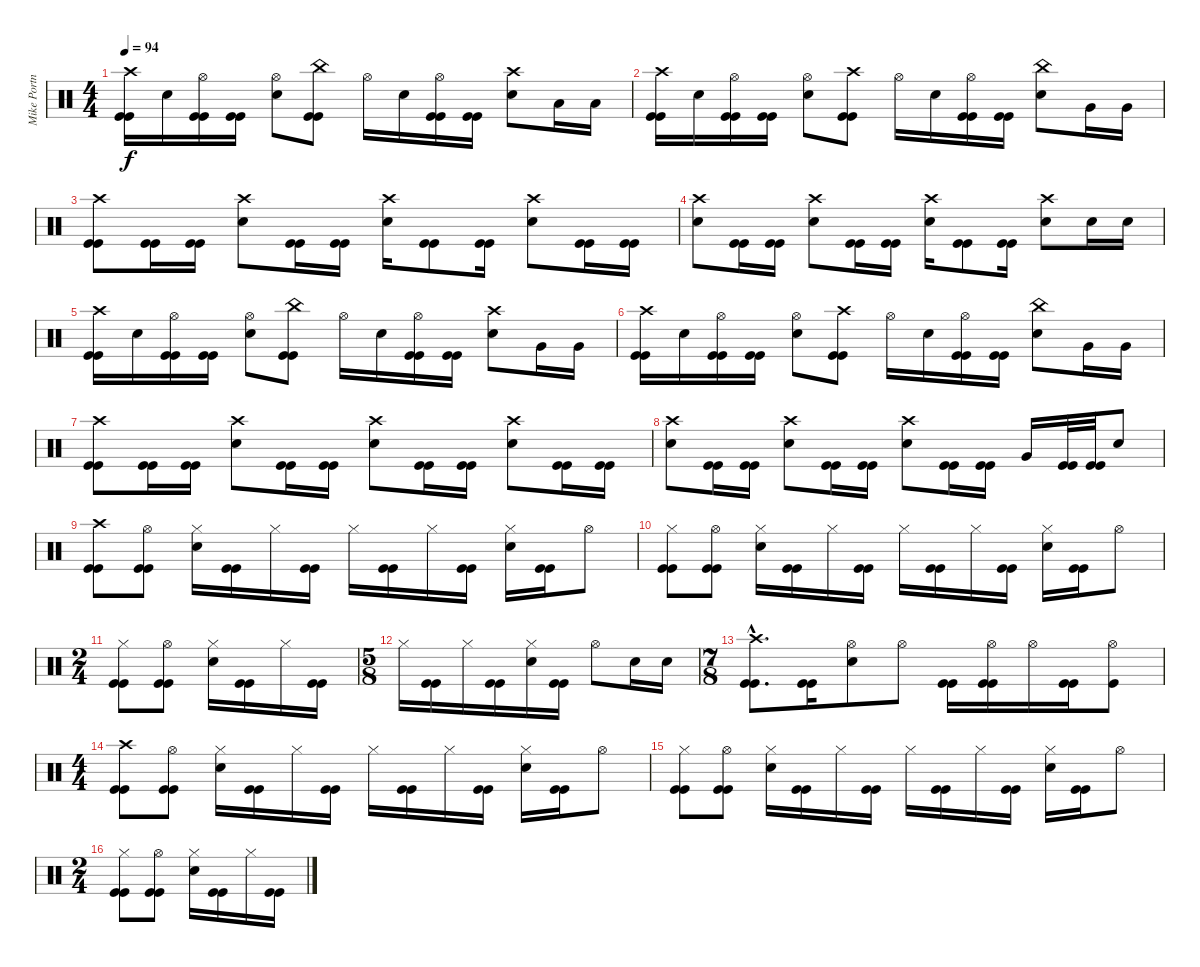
\track ("Mike Portnoy - Drum" "Mike Portn") {instrument percussion}
\staff {score}
\articulation defaults
\ts (4 4)
\tempo 94
\clef neutral
\ks c
("Crash high (hit)" "Kick (hit)" "Kick (hit)").16{dy f} "Snare (hit) 2".16 ("Hi-Hat (open)" "Kick (hit)" "Kick (hit)").16 ("Kick (hit)" "Kick (hit)").16 ("Hi-Hat (open)" "Snare (hit) 2").8 ("China (hit)" "Kick (hit)" "Kick (hit)").8 "Hi-Hat (open)".16 "Snare (hit) 2".16 ("Hi-Hat (open)" "Kick (hit)" "Kick (hit)").16 ("Kick (hit)" "Kick (hit)").16 ("Crash high (hit)" "Snare (hit) 2").8 "Low Tom (hit)".16 "Low Tom (hit)".16 |
("Crash high (hit)" "Kick (hit)" "Kick (hit)").16 "Snare (hit) 2".16 ("Hi-Hat (open)" "Kick (hit)" "Kick (hit)").16 ("Kick (hit)" "Kick (hit)").16 ("Hi-Hat (open)" "Snare (hit) 2").8 ("Crash high (hit)" "Kick (hit)" "Kick (hit)").8 "Hi-Hat (open)".16 "Snare (hit) 2".16 ("Hi-Hat (open)" "Kick (hit)" "Kick (hit)").16 ("Kick (hit)" "Kick (hit)").16 ("China (hit)" "Snare (hit) 2").8 "Very Low Tom (hit)".16 "Very Low Tom (hit)".16 |
("Crash high (hit)" "Kick (hit)" "Kick (hit)").8 ("Kick (hit)" "Kick (hit)").16 ("Kick (hit)" "Kick (hit)").16 ("Crash high (hit)" "Snare (hit) 2").8 ("Kick (hit)" "Kick (hit)").16 ("Kick (hit)" "Kick (hit)").16 ("Crash high (hit)" "Snare (hit) 2").16 ("Kick (hit)" "Kick (hit)").8 ("Kick (hit)" "Kick (hit)").16 ("Crash high (hit)" "Snare (hit) 2").8 ("Kick (hit)" "Kick (hit)").16 ("Kick (hit)" "Kick (hit)").16 |
("Crash high (hit)" "Snare (hit) 2").8 ("Kick (hit)" "Kick (hit)").16 ("Kick (hit)" "Kick (hit)").16 ("Crash high (hit)" "Snare (hit) 2").8 ("Kick (hit)" "Kick (hit)").16 ("Kick (hit)" "Kick (hit)").16 ("Crash high (hit)" "Snare (hit) 2").16 ("Kick (hit)" "Kick (hit)").8 ("Kick (hit)" "Kick (hit)").16 ("Crash high (hit)" "Snare (hit) 2").8 "Snare (hit) 2".16 "Snare (hit) 2".16 |
("Crash high (hit)" "Kick (hit)" "Kick (hit)").16 "Snare (hit) 2".16 ("Hi-Hat (open)" "Kick (hit)" "Kick (hit)").16 ("Kick (hit)" "Kick (hit)").16 ("Hi-Hat (open)" "Snare (hit) 2").8 ("China (hit)" "Kick (hit)" "Kick (hit)").8 "Hi-Hat (open)".16 "Snare (hit) 2".16 ("Hi-Hat (open)" "Kick (hit)" "Kick (hit)").16 ("Kick (hit)" "Kick (hit)").16 ("Crash high (hit)" "Snare (hit) 2").8 "Very Low Tom (hit)".16 "Very Low Tom (hit)".16 |
("Crash high (hit)" "Kick (hit)" "Kick (hit)").16 "Snare (hit) 2".16 ("Hi-Hat (open)" "Kick (hit)" "Kick (hit)").16 ("Kick (hit)" "Kick (hit)").16 ("Hi-Hat (open)" "Snare (hit) 2").8 ("Crash high (hit)" "Kick (hit)" "Kick (hit)").8 "Hi-Hat (open)".16 "Snare (hit) 2".16 ("Hi-Hat (open)" "Kick (hit)" "Kick (hit)").16 ("Kick (hit)" "Kick (hit)").16 ("China (hit)" "Snare (hit) 2").8 "Very Low Tom (hit)".16 "Very Low Tom (hit)".16 |
("Crash high (hit)" "Kick (hit)" "Kick (hit)").8 ("Kick (hit)" "Kick (hit)").16 ("Kick (hit)" "Kick (hit)").16 ("Crash high (hit)" "Snare (hit) 2").8 ("Kick (hit)" "Kick (hit)").16 ("Kick (hit)" "Kick (hit)").16 ("Crash high (hit)" "Snare (hit) 2").8 ("Kick (hit)" "Kick (hit)").16 ("Kick (hit)" "Kick (hit)").16 ("Crash high (hit)" "Snare (hit) 2").8 ("Kick (hit)" "Kick (hit)").16 ("Kick (hit)" "Kick (hit)").16 |
("Crash high (hit)" "Snare (hit) 2").8 ("Kick (hit)" "Kick (hit)").16 ("Kick (hit)" "Kick (hit)").16 ("Crash high (hit)" "Snare (hit) 2").8 ("Kick (hit)" "Kick (hit)").16 ("Kick (hit)" "Kick (hit)").16 ("Crash high (hit)" "Snare (hit) 2").8 ("Kick (hit)" "Kick (hit)").16 ("Kick (hit)" "Kick (hit)").16 "Very Low Tom (hit)".16 ("Kick (hit)" "Kick (hit)").32 ("Kick (hit)" "Kick (hit)").32 "Snare (hit) 2".8 |
("Crash high (hit)" "Kick (hit)" "Kick (hit)").8 ("Hi-Hat (open)" "Kick (hit)" "Kick (hit)").8 ("Hi-Hat (closed)" "Snare (hit) 2").16 ("Kick (hit)" "Kick (hit)").16 "Hi-Hat (closed)".16 ("Kick (hit)" "Kick (hit)").16 "Hi-Hat (closed)".16 ("Kick (hit)" "Kick (hit)").16 "Hi-Hat (closed)".16 ("Kick (hit)" "Kick (hit)").16 ("Hi-Hat (closed)" "Snare (hit) 2").16 ("Kick (hit)" "Kick (hit)").16 "Hi-Hat (open)".8 |
("Hi-Hat (closed)" "Kick (hit)" "Kick (hit)").8 ("Hi-Hat (open)" "Kick (hit)" "Kick (hit)").8 ("Hi-Hat (closed)" "Snare (hit) 2").16 ("Kick (hit)" "Kick (hit)").16 "Hi-Hat (closed)".16 ("Kick (hit)" "Kick (hit)").16 "Hi-Hat (closed)".16 ("Kick (hit)" "Kick (hit)").16 "Hi-Hat (closed)".16 ("Kick (hit)" "Kick (hit)").16 ("Hi-Hat (closed)" "Snare (hit) 2").16 ("Kick (hit)" "Kick (hit)").16 "Hi-Hat (open)".8 |
\ts (2 4)
("Hi-Hat (closed)" "Kick (hit)" "Kick (hit)").8 ("Hi-Hat (open)" "Kick (hit)" "Kick (hit)").8 ("Hi-Hat (closed)" "Snare (hit) 2").16 ("Kick (hit)" "Kick (hit)").16 "Hi-Hat (closed)".16 ("Kick (hit)" "Kick (hit)").16 |
\ts (5 8)
"Hi-Hat (closed)".16 ("Kick (hit)" "Kick (hit)").16 "Hi-Hat (closed)".16 ("Kick (hit)" "Kick (hit)").16 ("Hi-Hat (closed)" "Snare (hit) 2").16 ("Kick (hit)" "Kick (hit)").16 "Hi-Hat (open)".8 "Snare (hit) 2".16 "Snare (hit) 2".16 |
\ts (7 8)
("Crash high (hit)"{hac} "Kick (hit)"{hac} "Kick (hit)"{hac}).8{d} ("Kick (hit)" "Kick (hit)").16 ("Hi-Hat (open)" "Snare (hit) 2").8 "Hi-Hat (open)".8 ("Kick (hit)" "Kick (hit)").16 ("Hi-Hat (open)" "Kick (hit)" "Kick (hit)").16 "Hi-Hat (open)".16 ("Kick (hit)" "Kick (hit)").16 ("Hi-Hat (open)" "Kick (hit)").8 |
\ts (4 4)
("Crash high (hit)" "Kick (hit)" "Kick (hit)").8 ("Hi-Hat (open)" "Kick (hit)" "Kick (hit)").8 ("Hi-Hat (closed)" "Snare (hit) 2").16 ("Kick (hit)" "Kick (hit)").16 "Hi-Hat (closed)".16 ("Kick (hit)" "Kick (hit)").16 "Hi-Hat (closed)".16 ("Kick (hit)" "Kick (hit)").16 "Hi-Hat (closed)".16 ("Kick (hit)" "Kick (hit)").16 ("Hi-Hat (closed)" "Snare (hit) 2").16 ("Kick (hit)" "Kick (hit)").16 "Hi-Hat (open)".8 |
("Hi-Hat (closed)" "Kick (hit)" "Kick (hit)").8 ("Hi-Hat (open)" "Kick (hit)" "Kick (hit)").8 ("Hi-Hat (closed)" "Snare (hit) 2").16 ("Kick (hit)" "Kick (hit)").16 "Hi-Hat (closed)".16 ("Kick (hit)" "Kick (hit)").16 "Hi-Hat (closed)".16 ("Kick (hit)" "Kick (hit)").16 "Hi-Hat (closed)".16 ("Kick (hit)" "Kick (hit)").16 ("Hi-Hat (closed)" "Snare (hit) 2").16 ("Kick (hit)" "Kick (hit)").16 "Hi-Hat (open)".8 |
\ts (2 4)
("Hi-Hat (closed)" "Kick (hit)" "Kick (hit)").8 ("Hi-Hat (open)" "Kick (hit)" "Kick (hit)").8 ("Hi-Hat (closed)" "Snare (hit) 2").16 ("Kick (hit)" "Kick (hit)").16 "Hi-Hat (closed)".16 ("Kick (hit)" "Kick (hit)").16
